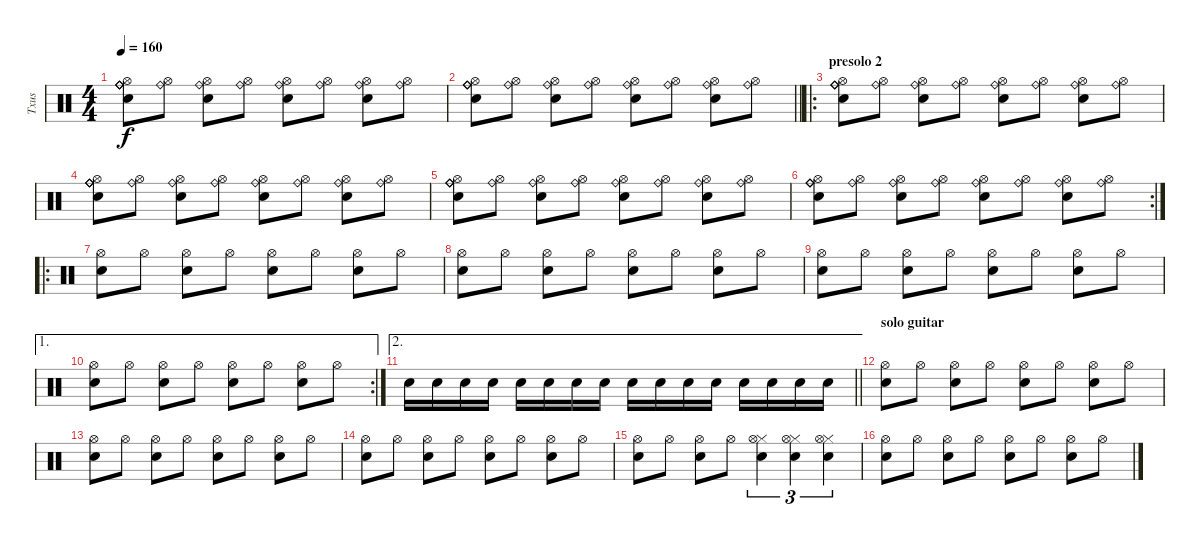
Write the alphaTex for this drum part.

\track ("Txus" "Txus") {instrument percussion}
\staff {score}
\articulation defaults
\ts (4 4)
\tempo 160
\clef neutral
\ks c
("Snare (hit) 2" "Hi-Hat (open)" "Ride (bell)" "Ride (bell)" "Ride (bell)").8{dy f} ("Hi-Hat (open)" "Ride (bell)").8 ("Snare (hit) 2" "Hi-Hat (open)" "Ride (bell)").8 ("Hi-Hat (open)" "Ride (bell)").8 ("Snare (hit) 2" "Hi-Hat (open)" "Ride (bell)").8 ("Hi-Hat (open)" "Ride (bell)").8 ("Snare (hit) 2" "Hi-Hat (open)" "Ride (bell)").8 ("Hi-Hat (open)" "Ride (bell)").8 |
\barLineRight lightlight
("Snare (hit) 2" "Hi-Hat (open)" "Ride (bell)" "Ride (bell)" "Ride (bell)").8 ("Hi-Hat (open)" "Ride (bell)").8 ("Snare (hit) 2" "Hi-Hat (open)" "Ride (bell)").8 ("Hi-Hat (open)" "Ride (bell)").8 ("Snare (hit) 2" "Hi-Hat (open)" "Ride (bell)").8 ("Hi-Hat (open)" "Ride (bell)").8 ("Snare (hit) 2" "Hi-Hat (open)" "Ride (bell)").8 ("Hi-Hat (open)" "Ride (bell)").8 |
\ro
\section ("" "presolo 2")
("Snare (hit) 2" "Hi-Hat (open)" "Ride (bell)" "Ride (bell)" "Ride (bell)").8 ("Hi-Hat (open)" "Ride (bell)").8 ("Snare (hit) 2" "Hi-Hat (open)" "Ride (bell)").8 ("Hi-Hat (open)" "Ride (bell)").8 ("Snare (hit) 2" "Hi-Hat (open)" "Ride (bell)").8 ("Hi-Hat (open)" "Ride (bell)").8 ("Snare (hit) 2" "Hi-Hat (open)" "Ride (bell)").8 ("Hi-Hat (open)" "Ride (bell)").8 |
("Snare (hit) 2" "Hi-Hat (open)" "Ride (bell)" "Ride (bell)" "Ride (bell)").8 ("Hi-Hat (open)" "Ride (bell)").8 ("Snare (hit) 2" "Hi-Hat (open)" "Ride (bell)").8 ("Hi-Hat (open)" "Ride (bell)").8 ("Snare (hit) 2" "Hi-Hat (open)" "Ride (bell)").8 ("Hi-Hat (open)" "Ride (bell)").8 ("Snare (hit) 2" "Hi-Hat (open)" "Ride (bell)").8 ("Hi-Hat (open)" "Ride (bell)").8 |
("Snare (hit) 2" "Hi-Hat (open)" "Ride (bell)" "Ride (bell)" "Ride (bell)").8 ("Hi-Hat (open)" "Ride (bell)").8 ("Snare (hit) 2" "Hi-Hat (open)" "Ride (bell)").8 ("Hi-Hat (open)" "Ride (bell)").8 ("Snare (hit) 2" "Hi-Hat (open)" "Ride (bell)").8 ("Hi-Hat (open)" "Ride (bell)").8 ("Snare (hit) 2" "Hi-Hat (open)" "Ride (bell)").8 ("Hi-Hat (open)" "Ride (bell)").8 |
\rc 2
("Snare (hit) 2" "Hi-Hat (open)" "Ride (bell)" "Ride (bell)" "Ride (bell)").8 ("Hi-Hat (open)" "Ride (bell)").8 ("Snare (hit) 2" "Hi-Hat (open)" "Ride (bell)").8 ("Hi-Hat (open)" "Ride (bell)").8 ("Snare (hit) 2" "Hi-Hat (open)" "Ride (bell)").8 ("Hi-Hat (open)" "Ride (bell)").8 ("Snare (hit) 2" "Hi-Hat (open)" "Ride (bell)").8 ("Hi-Hat (open)" "Ride (bell)").8 |
\ro
("Snare (hit) 2" "Hi-Hat (open)").8 "Hi-Hat (open)".8 ("Snare (hit) 2" "Hi-Hat (open)").8 "Hi-Hat (open)".8 ("Snare (hit) 2" "Hi-Hat (open)").8 "Hi-Hat (open)".8 ("Snare (hit) 2" "Hi-Hat (open)").8 "Hi-Hat (open)".8 |
("Snare (hit) 2" "Hi-Hat (open)").8 "Hi-Hat (open)".8 ("Snare (hit) 2" "Hi-Hat (open)").8 "Hi-Hat (open)".8 ("Snare (hit) 2" "Hi-Hat (open)").8 "Hi-Hat (open)".8 ("Snare (hit) 2" "Hi-Hat (open)").8 "Hi-Hat (open)".8 |
("Snare (hit) 2" "Hi-Hat (open)").8 "Hi-Hat (open)".8 ("Snare (hit) 2" "Hi-Hat (open)").8 "Hi-Hat (open)".8 ("Snare (hit) 2" "Hi-Hat (open)").8 "Hi-Hat (open)".8 ("Snare (hit) 2" "Hi-Hat (open)").8 "Hi-Hat (open)".8 |
\ae 1
\rc 2
("Snare (hit) 2" "Hi-Hat (open)").8 "Hi-Hat (open)".8 ("Snare (hit) 2" "Hi-Hat (open)").8 "Hi-Hat (open)".8 ("Snare (hit) 2" "Hi-Hat (open)").8 "Hi-Hat (open)".8 ("Snare (hit) 2" "Hi-Hat (open)").8 "Hi-Hat (open)".8 |
\ae 2
\barLineRight lightlight "Snare (hit) 2".16 "Snare (hit) 2".16 "Snare (hit) 2".16 "Snare (hit) 2".16 "Snare (hit) 2".16 "Snare (hit) 2".16 "Snare (hit) 2".16 "Snare (hit) 2".16 "Snare (hit) 2".16 "Snare (hit) 2".16 "Snare (hit) 2".16 "Snare (hit) 2".16 "Snare (hit) 2".16 "Snare (hit) 2".16 "Snare (hit) 2".16 "Snare (hit) 2".16
|
\section ("" "solo guitar")
("Snare (hit) 2" "Hi-Hat (open)").8 "Hi-Hat (open)".8 ("Snare (hit) 2" "Hi-Hat (open)").8 "Hi-Hat (open)".8 ("Snare (hit) 2" "Hi-Hat (open)").8 "Hi-Hat (open)".8 ("Snare (hit) 2" "Hi-Hat (open)").8 "Hi-Hat (open)".8 |
("Snare (hit) 2" "Hi-Hat (open)").8 "Hi-Hat (open)".8 ("Snare (hit) 2" "Hi-Hat (open)").8 "Hi-Hat (open)".8 ("Snare (hit) 2" "Hi-Hat (open)").8 "Hi-Hat (open)".8 ("Snare (hit) 2" "Hi-Hat (open)").8 "Hi-Hat (open)".8 |
("Snare (hit) 2" "Hi-Hat (open)").8 "Hi-Hat (open)".8 ("Snare (hit) 2" "Hi-Hat (open)").8 "Hi-Hat (open)".8 ("Snare (hit) 2" "Hi-Hat (open)").8 "Hi-Hat (open)".8 ("Snare (hit) 2" "Hi-Hat (open)").8 "Hi-Hat (open)".8 |
("Snare (hit) 2" "Hi-Hat (open)").8 "Hi-Hat (open)".8 ("Snare (hit) 2" "Hi-Hat (open)").8 "Hi-Hat (open)".8 ("Snare (hit) 2" "Hi-Hat (closed)" "Hi-Hat (open)").4{tu (3 2)} ("Snare (hit) 2" "Hi-Hat (closed)" "Hi-Hat (open)").4{tu (3 2)} ("Snare (hit) 2" "Hi-Hat (closed)" "Hi-Hat (open)").4{tu (3 2)} |
("Snare (hit) 2" "Hi-Hat (open)").8 "Hi-Hat (open)".8 ("Snare (hit) 2" "Hi-Hat (open)").8 "Hi-Hat (open)".8 ("Snare (hit) 2" "Hi-Hat (open)").8 "Hi-Hat (open)".8 ("Snare (hit) 2" "Hi-Hat (open)").8 "Hi-Hat (open)".8
